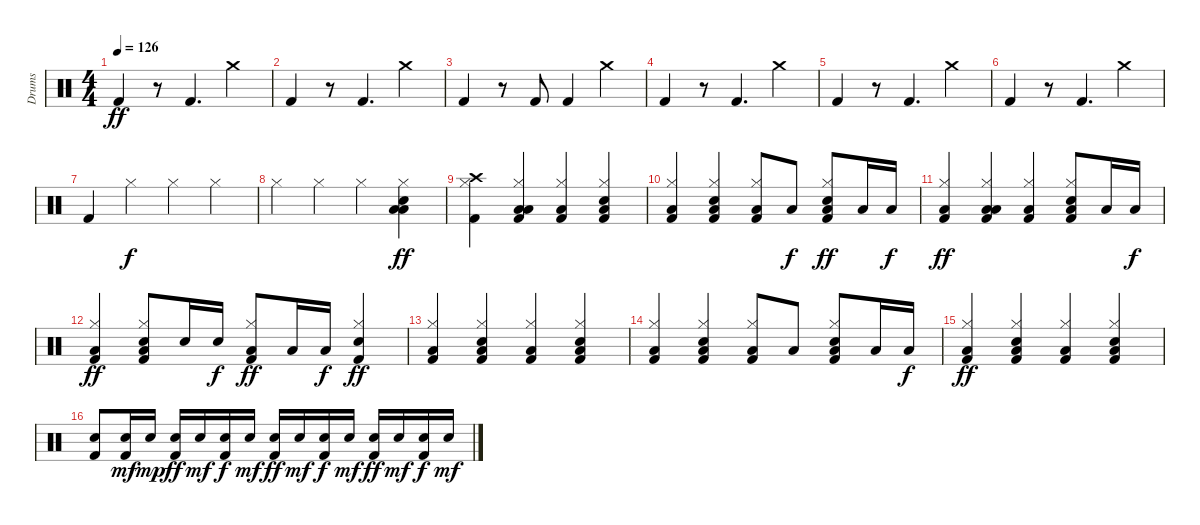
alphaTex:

\track ("Drums" "Drums") {instrument percussion}
\staff {score}
\articulation defaults
\ts (4 4)
\tempo 126
\clef neutral
\ks c "Kick (hit) 2".4{dy ff}
r.8 "Kick (hit) 2".4{d} "Crash medium (hit)".4 |
"Kick (hit) 2".4 r.8 "Kick (hit) 2".4{d} "Crash medium (hit)".4 |
"Kick (hit) 2".4 r.8 "Kick (hit) 2".8 "Kick (hit) 2".4 "Crash medium (hit)".4 |
"Kick (hit) 2".4 r.8 "Kick (hit) 2".4{d} "Crash medium (hit)".4 |
"Kick (hit) 2".4 r.8 "Kick (hit) 2".4{d} "Crash medium (hit)".4 |
"Kick (hit) 2".4 r.8 "Kick (hit) 2".4{d} "Crash medium (hit)".4 |
"Kick (hit) 2".4 "Hi-Hat (closed)".4{dy f} "Hi-Hat (closed)".4 "Hi-Hat (closed)".4 |
"Hi-Hat (closed)".4 "Hi-Hat (closed)".4 "Hi-Hat (closed)".4 ("Hi-Hat (closed)" "Low Tom (hit)" "Low Floor Tom (hit)" "Snare (hit) 2").4{dy ff} |
("Hi-Hat (closed)" "Kick (hit) 2" "Crash high (hit)").4 ("Hi-Hat (closed)" "Low Floor Tom (hit)" "Kick (hit) 2" "Low Tom (hit)").4 ("Hi-Hat (closed)" "Low Floor Tom (hit)" "Kick (hit) 2").4 ("Hi-Hat (closed)" "Low Floor Tom (hit)" "Kick (hit) 2" "Snare (hit) 2").4 |
("Hi-Hat (closed)" "Low Floor Tom (hit)" "Kick (hit) 2").4 ("Hi-Hat (closed)" "Low Floor Tom (hit)" "Kick (hit) 2" "Snare (hit) 2").4 ("Hi-Hat (closed)" "Low Floor Tom (hit)" "Kick (hit) 2").8 "Low Floor Tom (hit)".8{dy f} ("Hi-Hat (closed)" "Low Floor Tom (hit)" "Kick (hit) 2" "Snare (hit) 2").8{dy ff} "Low Tom (hit)".16 "Low Tom (hit)".16{dy f} |
("Hi-Hat (closed)" "Low Floor Tom (hit)" "Kick (hit) 2").4{dy ff} ("Hi-Hat (closed)" "Low Floor Tom (hit)" "Kick (hit) 2" "Low Tom (hit)").4 ("Hi-Hat (closed)" "Low Floor Tom (hit)" "Kick (hit) 2").4 ("Hi-Hat (closed)" "Low Floor Tom (hit)" "Kick (hit) 2" "Snare (hit) 2").8 "Low Tom (hit)".16 "Low Tom (hit)".16{dy f} |
("Hi-Hat (closed)" "Low Floor Tom (hit)" "Kick (hit) 2").4{dy ff} ("Hi-Hat (closed)" "Low Floor Tom (hit)" "Kick (hit) 2" "Snare (hit) 2").8 "Snare (hit) 2".16 "Snare (hit) 2".16{dy f} ("Hi-Hat (closed)" "Low Floor Tom (hit)" "Kick (hit) 2").8{dy ff} "Low Floor Tom (hit)".16 "Low Floor Tom (hit)".16{dy f} ("Hi-Hat (closed)" "Kick (hit) 2" "Snare (hit) 2").4{dy ff} |
("Hi-Hat (closed)" "Low Floor Tom (hit)" "Kick (hit) 2").4 ("Hi-Hat (closed)" "Low Floor Tom (hit)" "Kick (hit) 2" "Snare (hit) 2").4 ("Hi-Hat (closed)" "Low Floor Tom (hit)" "Kick (hit) 2").4 ("Hi-Hat (closed)" "Low Floor Tom (hit)" "Kick (hit) 2" "Snare (hit) 2").4 |
("Hi-Hat (closed)" "Low Floor Tom (hit)" "Kick (hit) 2").4 ("Hi-Hat (closed)" "Low Floor Tom (hit)" "Kick (hit) 2" "Snare (hit) 2").4 ("Hi-Hat (closed)" "Low Floor Tom (hit)" "Kick (hit) 2").8 "Low Floor Tom (hit)".8 ("Hi-Hat (closed)" "Low Floor Tom (hit)" "Kick (hit) 2" "Snare (hit) 2").8 "Low Tom (hit)".16 "Low Tom (hit)".16{dy f} |
("Hi-Hat (closed)" "Low Floor Tom (hit)" "Kick (hit) 2").4{dy ff} ("Hi-Hat (closed)" "Low Floor Tom (hit)" "Kick (hit) 2" "Snare (hit) 2").4 ("Hi-Hat (closed)" "Low Floor Tom (hit)" "Kick (hit) 2").4 ("Hi-Hat (closed)" "Low Floor Tom (hit)" "Kick (hit) 2" "Snare (hit) 2").4 |
("Snare (hit) 2" "Kick (hit) 2").8 ("Snare (hit) 2" "Kick (hit) 2").16{dy mf} "Snare (hit) 2".16{dy mp} ("Snare (hit) 2" "Kick (hit) 2").16{dy ff} "Snare (hit) 2".16{dy mf} ("Snare (hit) 2" "Kick (hit) 2").16{dy f} "Snare (hit) 2".16{dy mf} ("Snare (hit) 2" "Kick (hit) 2").16{dy ff} "Snare (hit) 2".16{dy mf} ("Snare (hit) 2" "Kick (hit) 2").16{dy f} "Snare (hit) 2".16{dy mf} ("Snare (hit) 2" "Kick (hit) 2").16{dy ff} "Snare (hit) 2".16{dy mf} ("Snare (hit) 2" "Kick (hit) 2").16{dy f} "Snare (hit) 2".16{dy mf}
